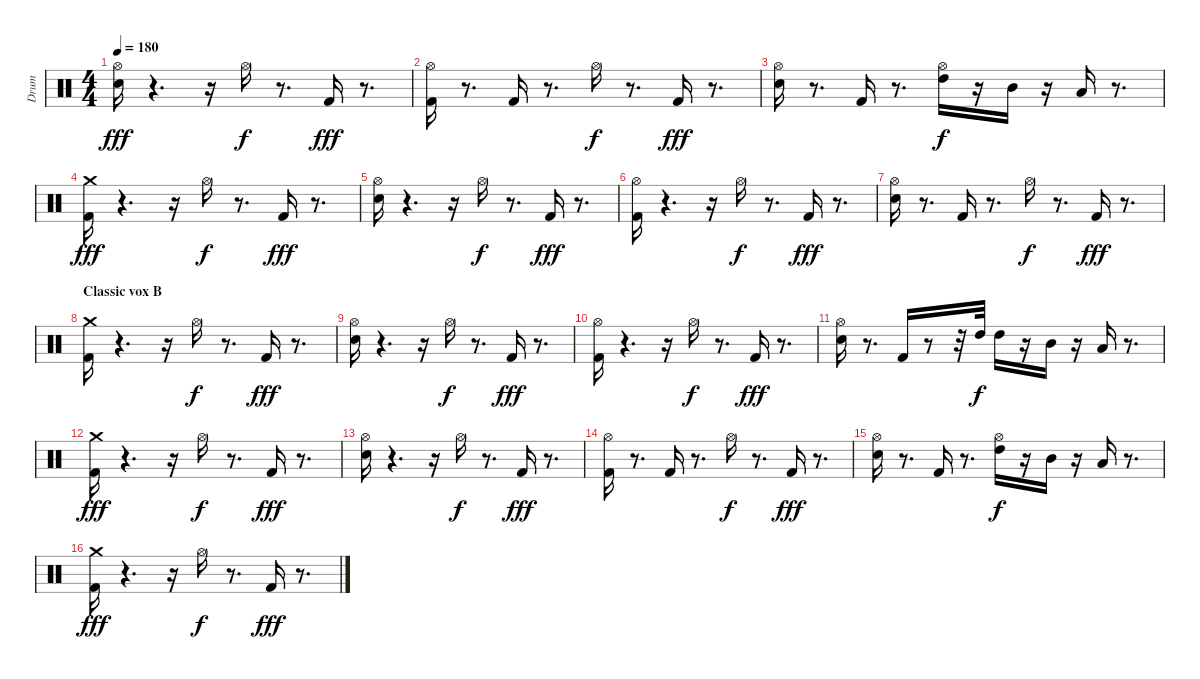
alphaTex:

\track ("Drum" "Drum") {instrument percussion}
\staff {score}
\articulation defaults
\ts (4 4)
\tempo 180
\clef neutral
\ks c
("Electric Snare (hit)" "Hi-Hat (open)").16{dy fff} r.4{d} r.16 "Hi-Hat (open)".16{dy f} r.8{d} "Kick (hit) 2".16{dy fff} r.8{d} |
("Kick (hit) 2" "Hi-Hat (open)").16 r.8{d} "Kick (hit) 2".16 r.8{d} "Hi-Hat (open)".16{dy f} r.8{d} "Kick (hit) 2".16{dy fff} r.8{d} |
("Electric Snare (hit)" "Hi-Hat (open)").16 r.8{d} "Kick (hit) 2".16 r.8{d} ("Hi-Hat (open)" "High Tom (hit)").16{dy f} r.16 "Mid Tom (hit)".16 r.16 "Low Tom (hit)".16 r.8{d} |
("Kick (hit) 2" "Crash medium (hit)").16{dy fff} r.4{d} r.16 "Hi-Hat (open)".16{dy f} r.8{d} "Kick (hit) 2".16{dy fff} r.8{d} |
("Electric Snare (hit)" "Hi-Hat (open)").16 r.4{d} r.16 "Hi-Hat (open)".16{dy f} r.8{d} "Kick (hit) 2".16{dy fff} r.8{d} |
("Kick (hit) 2" "Hi-Hat (open)").16 r.4{d} r.16 "Hi-Hat (open)".16{dy f} r.8{d} "Kick (hit) 2".16{dy fff} r.8{d} |
("Electric Snare (hit)" "Hi-Hat (open)").16 r.8{d} "Kick (hit) 2".16 r.8{d} "Hi-Hat (open)".16{dy f} r.8{d} "Kick (hit) 2".16{dy fff} r.8{d} |
\section ("" "Classic vox B")
("Kick (hit) 2" "Crash medium (hit)").16 r.4{d} r.16 "Hi-Hat (open)".16{dy f} r.8{d} "Kick (hit) 2".16{dy fff} r.8{d} |
("Electric Snare (hit)" "Hi-Hat (open)").16 r.4{d} r.16 "Hi-Hat (open)".16{dy f} r.8{d} "Kick (hit) 2".16{dy fff} r.8{d} |
("Kick (hit) 2" "Hi-Hat (open)").16 r.4{d} r.16 "Hi-Hat (open)".16{dy f} r.8{d} "Kick (hit) 2".16{dy fff} r.8{d} |
("Electric Snare (hit)" "Hi-Hat (open)").16 r.8{d} "Kick (hit) 2".16 r.8 r.32 "High Tom (hit)".32{dy f} "High Tom (hit)".16 r.16 "Mid Tom (hit)".16 r.16 "Low Tom (hit)".16 r.8{d} |
("Kick (hit) 2" "Crash medium (hit)").16{dy fff} r.4{d} r.16 "Hi-Hat (open)".16{dy f} r.8{d} "Kick (hit) 2".16{dy fff} r.8{d} |
("Electric Snare (hit)" "Hi-Hat (open)").16 r.4{d} r.16 "Hi-Hat (open)".16{dy f} r.8{d} "Kick (hit) 2".16{dy fff} r.8{d} |
("Kick (hit) 2" "Hi-Hat (open)").16 r.8{d} "Kick (hit) 2".16 r.8{d} "Hi-Hat (open)".16{dy f} r.8{d} "Kick (hit) 2".16{dy fff} r.8{d} |
("Electric Snare (hit)" "Hi-Hat (open)").16 r.8{d} "Kick (hit) 2".16 r.8{d} ("Hi-Hat (open)" "High Tom (hit)").16{dy f} r.16 "Mid Tom (hit)".16 r.16 "Low Tom (hit)".16 r.8{d} |
("Kick (hit) 2" "Crash medium (hit)").16{dy fff} r.4{d} r.16 "Hi-Hat (open)".16{dy f} r.8{d} "Kick (hit) 2".16{dy fff} r.8{d}
